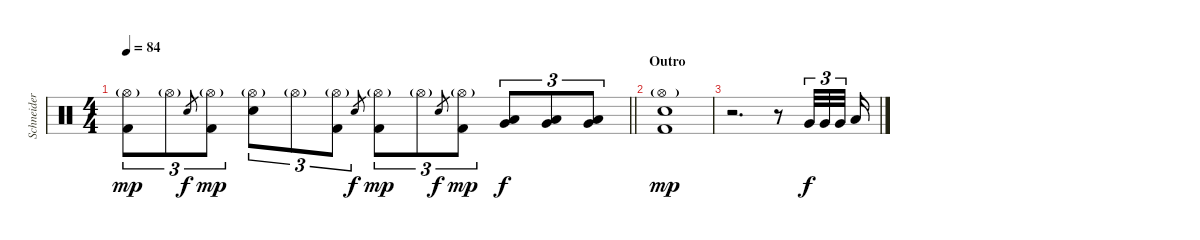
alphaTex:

\track ("Schneider" "Schneider") {instrument percussion}
\staff {score}
\articulation defaults
\ts (4 4)
\tempo 84
\clef neutral
\barLineRight lightlight
\ks c
("Hi-Hat (open)"{g} "Kick (hit) 2").8{tu (3 2) dy mp} "Hi-Hat (open)"{g}.8{tu (3 2)} "Electric Snare (hit)".8{gr dy f} ("Hi-Hat (open)"{g} "Kick (hit) 2").8{tu (3 2) dy mp} ("Hi-Hat (open)"{g} "Electric Snare (hit)").8{tu (3 2)} "Hi-Hat (open)"{g}.8{tu (3 2)} ("Hi-Hat (open)"{g} "Kick (hit) 2").8{tu (3 2)} "Electric Snare (hit)".8{gr dy f} ("Hi-Hat (open)"{g} "Kick (hit) 2").8{tu (3 2) dy mp} "Hi-Hat (open)"{g}.8{tu (3 2)} "Electric Snare (hit)".8{gr dy f} ("Hi-Hat (open)"{g} "Kick (hit) 2").8{tu (3 2) dy mp} ("Very Low Tom (hit)" "Low Tom (hit)").8{tu (3 2) dy f} ("Very Low Tom (hit)" "Low Tom (hit)").8{tu (3 2)} ("Very Low Tom (hit)" "Low Tom (hit)").8{tu (3 2)} |
\section ("" "Outro")
("Hi-Hat (open)"{g} "Kick (hit) 2" "Electric Snare (hit)").1{dy mp} |
r.2{d} r.8 "Very Low Tom (hit)".32{tu (3 2) dy f} "Very Low Tom (hit)".32{tu (3 2)} "Very Low Tom (hit)".32{tu (3 2) beam splitsecondary} "Low Tom (hit)".16
